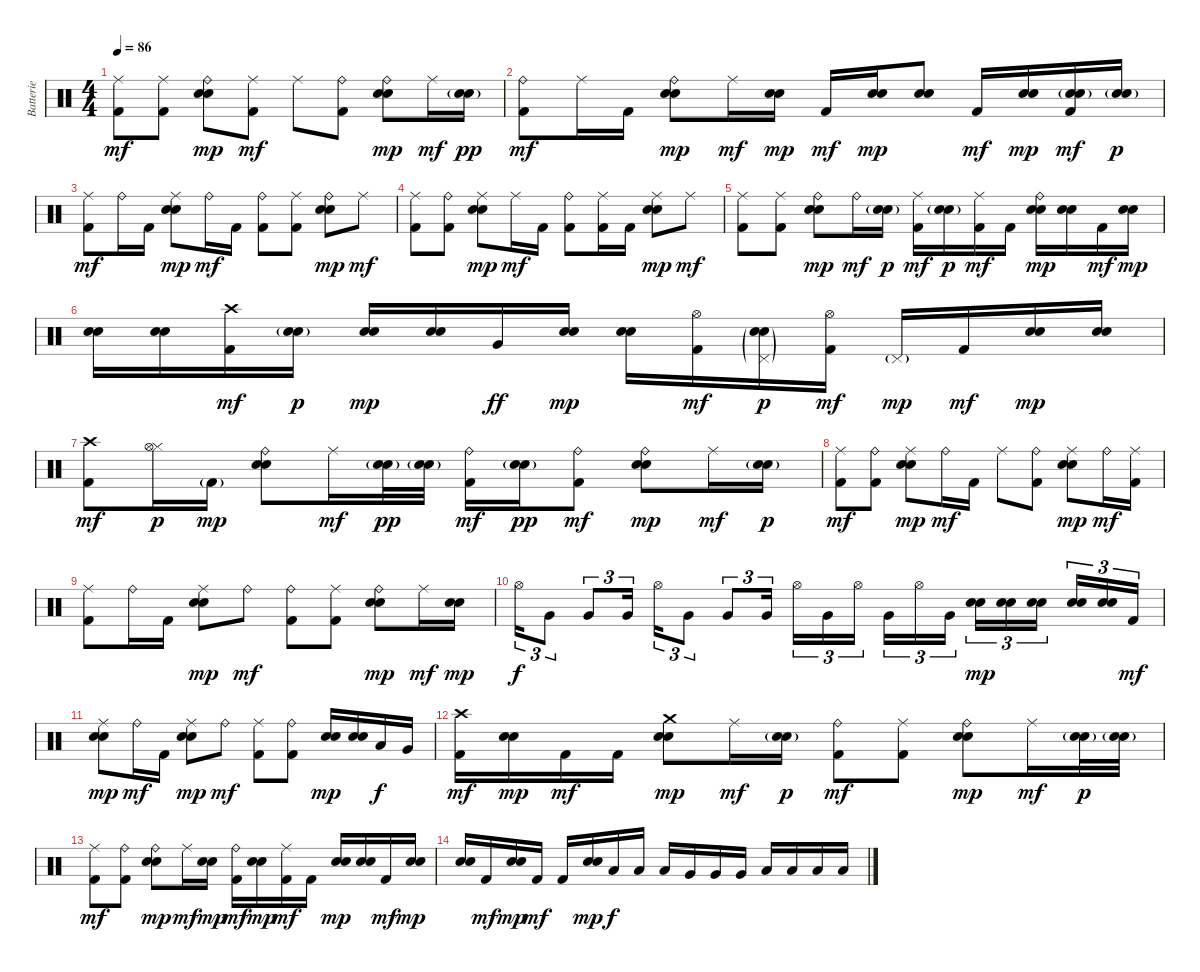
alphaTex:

\track ("Batterie" "Batterie") {instrument percussion}
\staff {score}
\articulation defaults
\ts (4 4)
\tempo 86
\clef neutral
\ks c
("Ride (middle)" "Kick (hit) 2").8{dy mf} ("Ride (middle)" "Kick (hit) 2").8 ("Ride (bell)" "Electric Snare (hit)" "Snare (hit) 2").8{dy mp} ("Ride (middle)" "Kick (hit) 2").8{dy mf} "Ride (middle)".8 ("Ride (bell)" "Kick (hit) 2").8 ("Ride (bell)" "Electric Snare (hit)" "Snare (hit) 2").8{dy mp} "Ride (middle)".16{dy mf} ("Electric Snare (hit)"{g} "Snare (hit) 2"{g}).16{dy pp} |
("Ride (bell)" "Kick (hit) 2").8{dy mf} "Ride (middle)".16 "Kick (hit) 2".16 ("Ride (bell)" "Electric Snare (hit)" "Snare (hit) 2").8{dy mp} "Ride (middle)".16{dy mf} ("Electric Snare (hit)" "Snare (hit) 2").16{dy mp} "Kick (hit) 2".16{dy mf} ("Electric Snare (hit)" "Snare (hit) 2").16{dy mp} ("Electric Snare (hit)" "Snare (hit) 2").8 "Kick (hit) 2".16{dy mf} ("Electric Snare (hit)" "Snare (hit) 2").16{dy mp} ("Electric Snare (hit)"{g} "Snare (hit) 2"{g} "Kick (hit) 2").16{dy mf} ("Electric Snare (hit)"{g} "Snare (hit) 2"{g}).16{dy p} |
("Ride (middle)" "Kick (hit) 2").8{dy mf} "Ride (bell)".16 "Kick (hit) 2".16 ("Ride (middle)" "Electric Snare (hit)" "Snare (hit) 2").8{dy mp} "Ride (bell)".16{dy mf} "Kick (hit) 2".16 ("Ride (bell)" "Kick (hit) 2").8 ("Ride (middle)" "Kick (hit) 2").8 ("Ride (bell)" "Electric Snare (hit)" "Snare (hit) 2").8{dy mp} "Ride (middle)".8{dy mf} |
("Ride (middle)" "Kick (hit) 2").8 ("Ride (bell)" "Kick (hit) 2").8 ("Ride (middle)" "Electric Snare (hit)" "Snare (hit) 2").8{dy mp} "Ride (middle)".16{dy mf} "Kick (hit) 2".16 ("Ride (bell)" "Kick (hit) 2").8 ("Ride (middle)" "Kick (hit) 2").16 "Kick (hit) 2".16 ("Ride (middle)" "Electric Snare (hit)" "Snare (hit) 2").8{dy mp} "Ride (middle)".8{dy mf} |
("Ride (middle)" "Kick (hit) 2").8{volume 7} ("Ride (middle)" "Kick (hit) 2").8 ("Ride (bell)" "Electric Snare (hit)" "Snare (hit) 2").8{dy mp} "Ride (bell)".16{dy mf} ("Electric Snare (hit)"{g} "Snare (hit) 2"{g}).16{dy p} ("Ride (middle)" "Kick (hit) 2").16{dy mf} ("Electric Snare (hit)"{g} "Snare (hit) 2"{g}).16{dy p} ("Ride (middle)" "Kick (hit) 2").16{dy mf} "Kick (hit) 2".16 ("Ride (bell)" "Electric Snare (hit)" "Snare (hit) 2").16{dy mp} ("Electric Snare (hit)" "Snare (hit) 2").16 "Kick (hit) 2".16{dy mf} ("Electric Snare (hit)" "Snare (hit) 2").16{dy mp} |
("Electric Snare (hit)" "Snare (hit) 2").16 ("Electric Snare (hit)" "Snare (hit) 2").16 ("Crash high (hit)" "Kick (hit) 2").16{dy mf} ("Electric Snare (hit)"{g} "Snare (hit) 2"{g}).16{dy p} ("Electric Snare (hit)" "Snare (hit) 2").16{dy mp} ("Electric Snare (hit)" "Snare (hit) 2").16 "Very Low Tom (hit)".16{dy ff} ("Electric Snare (hit)" "Snare (hit) 2").16{dy mp} ("Electric Snare (hit)" "Snare (hit) 2").16 ("Hi-Hat (open)" "Kick (hit) 2").16{dy mf} ("Pedal Hi-Hat (hit)"{g} "Electric Snare (hit)"{g} "Snare (hit) 2"{g}).16{dy p} ("Hi-Hat (open)" "Kick (hit) 2").16{dy mf} "Pedal Hi-Hat (hit)"{g}.16{dy mp} "Kick (hit) 2".16{dy mf} ("Electric Snare (hit)" "Snare (hit) 2").16{dy mp} ("Electric Snare (hit)" "Snare (hit) 2").16 |
("Crash high (hit)" "Kick (hit) 2").8{dy mf} ("Hi-Hat (closed)" "Hi-Hat (open)").16{dy p} "Kick (hit) 2"{g}.16{dy mp} ("Ride (bell)" "Electric Snare (hit)" "Snare (hit) 2").8 "Ride (middle)".16{dy mf} ("Electric Snare (hit)"{g} "Snare (hit) 2"{g}).32{dy pp} ("Electric Snare (hit)"{g} "Snare (hit) 2"{g}).32 ("Ride (bell)" "Kick (hit) 2").16{dy mf} ("Electric Snare (hit)"{g} "Snare (hit) 2"{g}).16{dy pp} ("Ride (bell)" "Kick (hit) 2").8{dy mf} ("Ride (bell)" "Electric Snare (hit)" "Snare (hit) 2").8{dy mp} "Ride (middle)".16{dy mf} ("Electric Snare (hit)"{g} "Snare (hit) 2"{g}).16{dy p} |
("Ride (middle)" "Kick (hit) 2").8{dy mf} ("Ride (bell)" "Kick (hit) 2").8 ("Ride (middle)" "Electric Snare (hit)" "Snare (hit) 2").8{dy mp} "Ride (bell)".16{dy mf} "Kick (hit) 2".16 "Ride (middle)".8 ("Ride (bell)" "Kick (hit) 2").8 ("Ride (middle)" "Electric Snare (hit)" "Snare (hit) 2").8{dy mp} "Ride (bell)".16{dy mf} ("Ride (middle)" "Kick (hit) 2").16 |
("Ride (middle)" "Kick (hit) 2").8{volume 4} "Ride (bell)".16 "Kick (hit) 2".16 ("Ride (middle)" "Electric Snare (hit)" "Snare (hit) 2").8{dy mp} "Ride (bell)".8{dy mf} ("Ride (bell)" "Kick (hit) 2").8 ("Ride (middle)" "Kick (hit) 2").8 ("Ride (bell)" "Electric Snare (hit)" "Snare (hit) 2").8{dy mp} "Ride (middle)".16{dy mf} ("Electric Snare (hit)" "Snare (hit) 2").16{dy mp} |
"Hi-Hat (open)".16{tu (3 2) dy f} "Very Low Tom (hit)".8{tu (3 2)} "Very Low Tom (hit)".8{tu (3 2)} "Very Low Tom (hit)".16{tu (3 2)} "Hi-Hat (open)".16{tu (3 2)} "Very Low Tom (hit)".8{tu (3 2)} "Very Low Tom (hit)".8{tu (3 2)} "Very Low Tom (hit)".16{tu (3 2)} "Hi-Hat (open)".16{tu (3 2)} "Very Low Tom (hit)".16{tu (3 2)} "Hi-Hat (open)".16{tu (3 2)} "Very Low Tom (hit)".16{tu (3 2)} "Hi-Hat (open)".16{tu (3 2)} "Very Low Tom (hit)".16{tu (3 2)} ("Electric Snare (hit)" "Snare (hit) 2").16{tu (3 2) dy mp} ("Electric Snare (hit)" "Snare (hit) 2").16{tu (3 2)} ("Electric Snare (hit)" "Snare (hit) 2").16{tu (3 2)} ("Electric Snare (hit)" "Snare (hit) 2").16{tu (3 2)} ("Electric Snare (hit)" "Snare (hit) 2").16{tu (3 2)} "Kick (hit) 2".16{tu (3 2) dy mf} |
("Ride (middle)" "Electric Snare (hit)" "Snare (hit) 2").8{dy mp} "Ride (bell)".16{dy mf} "Kick (hit) 2".16 ("Ride (middle)" "Electric Snare (hit)" "Snare (hit) 2").8{dy mp} "Ride (bell)".8{dy mf} ("Ride (middle)" "Kick (hit) 2").8 ("Ride (bell)" "Kick (hit) 2").8 ("Electric Snare (hit)" "Snare (hit) 2").16{dy mp} ("Electric Snare (hit)" "Snare (hit) 2").16 "Low Tom (hit)".16{dy f} "Very Low Tom (hit)".16 |
("Crash high (hit)" "Kick (hit) 2").16{dy mf} ("Electric Snare (hit)" "Snare (hit) 2").16{dy mp} "Kick (hit) 2".16{dy mf} "Kick (hit) 2".16 ("Crash medium (hit)" "Electric Snare (hit)" "Snare (hit) 2").8{dy mp} "Ride (middle)".16{dy mf} ("Electric Snare (hit)"{g} "Snare (hit) 2"{g}).16{dy p} ("Ride (bell)" "Kick (hit) 2").8{dy mf} ("Ride (middle)" "Kick (hit) 2").8 ("Ride (bell)" "Electric Snare (hit)" "Snare (hit) 2").8{dy mp} "Ride (middle)".16{dy mf} ("Electric Snare (hit)"{g} "Snare (hit) 2"{g}).32{dy p} ("Electric Snare (hit)"{g} "Snare (hit) 2"{g}).32 |
("Ride (middle)" "Kick (hit) 2").8{dy mf volume 3} ("Ride (bell)" "Kick (hit) 2").8 ("Ride (bell)" "Electric Snare (hit)" "Snare (hit) 2").8{dy mp} "Ride (middle)".16{dy mf} ("Electric Snare (hit)" "Snare (hit) 2").16{dy mp} ("Ride (bell)" "Kick (hit) 2").16{dy mf} ("Electric Snare (hit)" "Snare (hit) 2").16{dy mp} ("Ride (middle)" "Kick (hit) 2").16{dy mf} "Kick (hit) 2".16 ("Electric Snare (hit)" "Snare (hit) 2").16{dy mp} ("Electric Snare (hit)" "Snare (hit) 2").16 "Kick (hit) 2".16{dy mf} ("Electric Snare (hit)" "Snare (hit) 2").16{dy mp} |
("Electric Snare (hit)" "Snare (hit) 2").16{volume 0} "Kick (hit) 2".16{dy mf} ("Electric Snare (hit)" "Snare (hit) 2").16{dy mp} "Kick (hit) 2".16{dy mf} "Kick (hit) 2".16 ("Electric Snare (hit)" "Snare (hit) 2").16{dy mp} "Low Tom (hit)".16{dy f} "Low Tom (hit)".16 "Low Tom (hit)".16 "Very Low Tom (hit)".16 "Very Low Tom (hit)".16 "Very Low Tom (hit)".16 "Low Floor Tom (hit)".16 "Low Floor Tom (hit)".16 "Low Floor Tom (hit)".16 "Low Floor Tom (hit)".16
